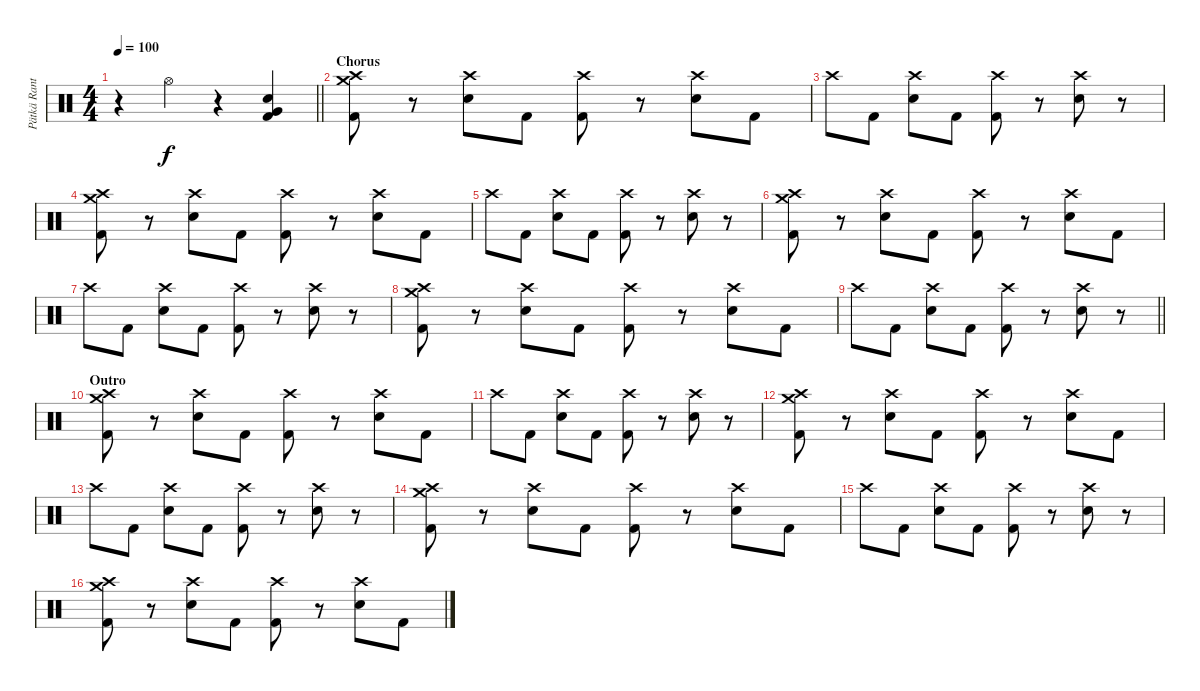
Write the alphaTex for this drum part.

\track ("Pätkä Rantala (Drums)" "Pätkä Rant") {instrument percussion}
\staff {score}
\articulation defaults
\ts (4 4)
\tempo 100
\clef neutral
\barLineRight lightlight
\ks c
r.4{dy f} "Hi-Hat (open)".4 r.4 ("Very Low Tom (hit)" "Snare (hit) 2" "Kick (hit) 2").4 |
\section ("" "Chorus")
("Crash medium (hit)" "Crash high (hit)" "Kick (hit) 2").8 r.8 ("Crash high (hit)" "Snare (hit) 2").8 "Kick (hit) 2".8 ("Crash high (hit)" "Kick (hit) 2").8 r.8 ("Crash high (hit)" "Snare (hit) 2").8 "Kick (hit) 2".8 |
"Crash high (hit)".8 "Kick (hit) 2".8 ("Crash high (hit)" "Snare (hit) 2").8 "Kick (hit) 2".8 ("Crash high (hit)" "Kick (hit) 2").8 r.8 ("Crash high (hit)" "Snare (hit) 2").8 r.8 |
("Crash medium (hit)" "Crash high (hit)" "Kick (hit) 2").8 r.8 ("Crash high (hit)" "Snare (hit) 2").8 "Kick (hit) 2".8 ("Crash high (hit)" "Kick (hit) 2").8 r.8 ("Crash high (hit)" "Snare (hit) 2").8 "Kick (hit) 2".8 |
"Crash high (hit)".8 "Kick (hit) 2".8 ("Crash high (hit)" "Snare (hit) 2").8 "Kick (hit) 2".8 ("Crash high (hit)" "Kick (hit) 2").8 r.8 ("Crash high (hit)" "Snare (hit) 2").8 r.8 |
("Crash medium (hit)" "Crash high (hit)" "Kick (hit) 2").8 r.8 ("Crash high (hit)" "Snare (hit) 2").8 "Kick (hit) 2".8 ("Crash high (hit)" "Kick (hit) 2").8 r.8 ("Crash high (hit)" "Snare (hit) 2").8 "Kick (hit) 2".8 |
"Crash high (hit)".8 "Kick (hit) 2".8 ("Crash high (hit)" "Snare (hit) 2").8 "Kick (hit) 2".8 ("Crash high (hit)" "Kick (hit) 2").8 r.8 ("Crash high (hit)" "Snare (hit) 2").8 r.8 |
("Crash medium (hit)" "Crash high (hit)" "Kick (hit) 2").8 r.8 ("Crash high (hit)" "Snare (hit) 2").8 "Kick (hit) 2".8 ("Crash high (hit)" "Kick (hit) 2").8 r.8 ("Crash high (hit)" "Snare (hit) 2").8 "Kick (hit) 2".8 |
\barLineRight lightlight "Crash high (hit)".8 "Kick (hit) 2".8
("Crash high (hit)" "Snare (hit) 2").8 "Kick (hit) 2".8 ("Crash high (hit)" "Kick (hit) 2").8 r.8 ("Crash high (hit)" "Snare (hit) 2").8 r.8 |
\section ("" "Outro")
("Crash medium (hit)" "Crash high (hit)" "Kick (hit) 2").8 r.8 ("Crash high (hit)" "Snare (hit) 2").8 "Kick (hit) 2".8 ("Crash high (hit)" "Kick (hit) 2").8 r.8 ("Crash high (hit)" "Snare (hit) 2").8 "Kick (hit) 2".8 |
"Crash high (hit)".8 "Kick (hit) 2".8 ("Crash high (hit)" "Snare (hit) 2").8 "Kick (hit) 2".8 ("Crash high (hit)" "Kick (hit) 2").8 r.8 ("Crash high (hit)" "Snare (hit) 2").8 r.8 |
("Crash medium (hit)" "Crash high (hit)" "Kick (hit) 2").8 r.8 ("Crash high (hit)" "Snare (hit) 2").8 "Kick (hit) 2".8 ("Crash high (hit)" "Kick (hit) 2").8 r.8 ("Crash high (hit)" "Snare (hit) 2").8 "Kick (hit) 2".8 |
"Crash high (hit)".8 "Kick (hit) 2".8 ("Crash high (hit)" "Snare (hit) 2").8 "Kick (hit) 2".8 ("Crash high (hit)" "Kick (hit) 2").8 r.8 ("Crash high (hit)" "Snare (hit) 2").8 r.8 |
("Crash medium (hit)" "Crash high (hit)" "Kick (hit) 2").8 r.8 ("Crash high (hit)" "Snare (hit) 2").8 "Kick (hit) 2".8 ("Crash high (hit)" "Kick (hit) 2").8 r.8 ("Crash high (hit)" "Snare (hit) 2").8 "Kick (hit) 2".8 |
"Crash high (hit)".8 "Kick (hit) 2".8 ("Crash high (hit)" "Snare (hit) 2").8 "Kick (hit) 2".8 ("Crash high (hit)" "Kick (hit) 2").8 r.8 ("Crash high (hit)" "Snare (hit) 2").8 r.8 |
("Crash medium (hit)" "Crash high (hit)" "Kick (hit) 2").8 r.8 ("Crash high (hit)" "Snare (hit) 2").8 "Kick (hit) 2".8 ("Crash high (hit)" "Kick (hit) 2").8 r.8 ("Crash high (hit)" "Snare (hit) 2").8 "Kick (hit) 2".8
